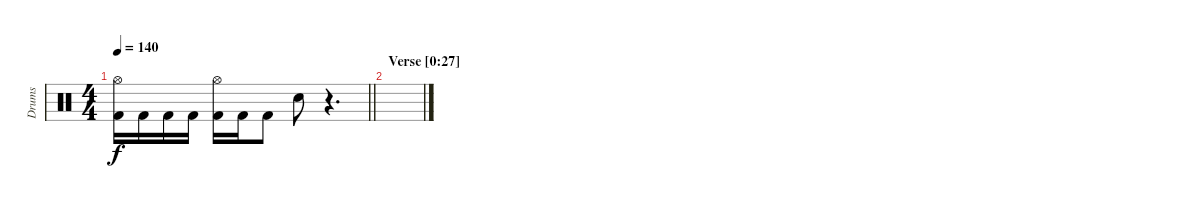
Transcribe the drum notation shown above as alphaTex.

\track ("Drums" "Drums") {instrument percussion}
\staff {score}
\articulation defaults
\ts (4 4)
\tempo 140
\clef neutral
\barLineRight lightlight
\ks aminor
("Hi-Hat (open)" "Kick (hit) 2").16{dy f} "Kick (hit) 2".16 "Kick (hit) 2".16 "Kick (hit) 2".16 ("Hi-Hat (open)" "Kick (hit) 2").16 "Kick (hit) 2".16 "Kick (hit) 2".8 "Snare (hit) 2".8 r.4{d} |
\section ("" "Verse [0:27]")
